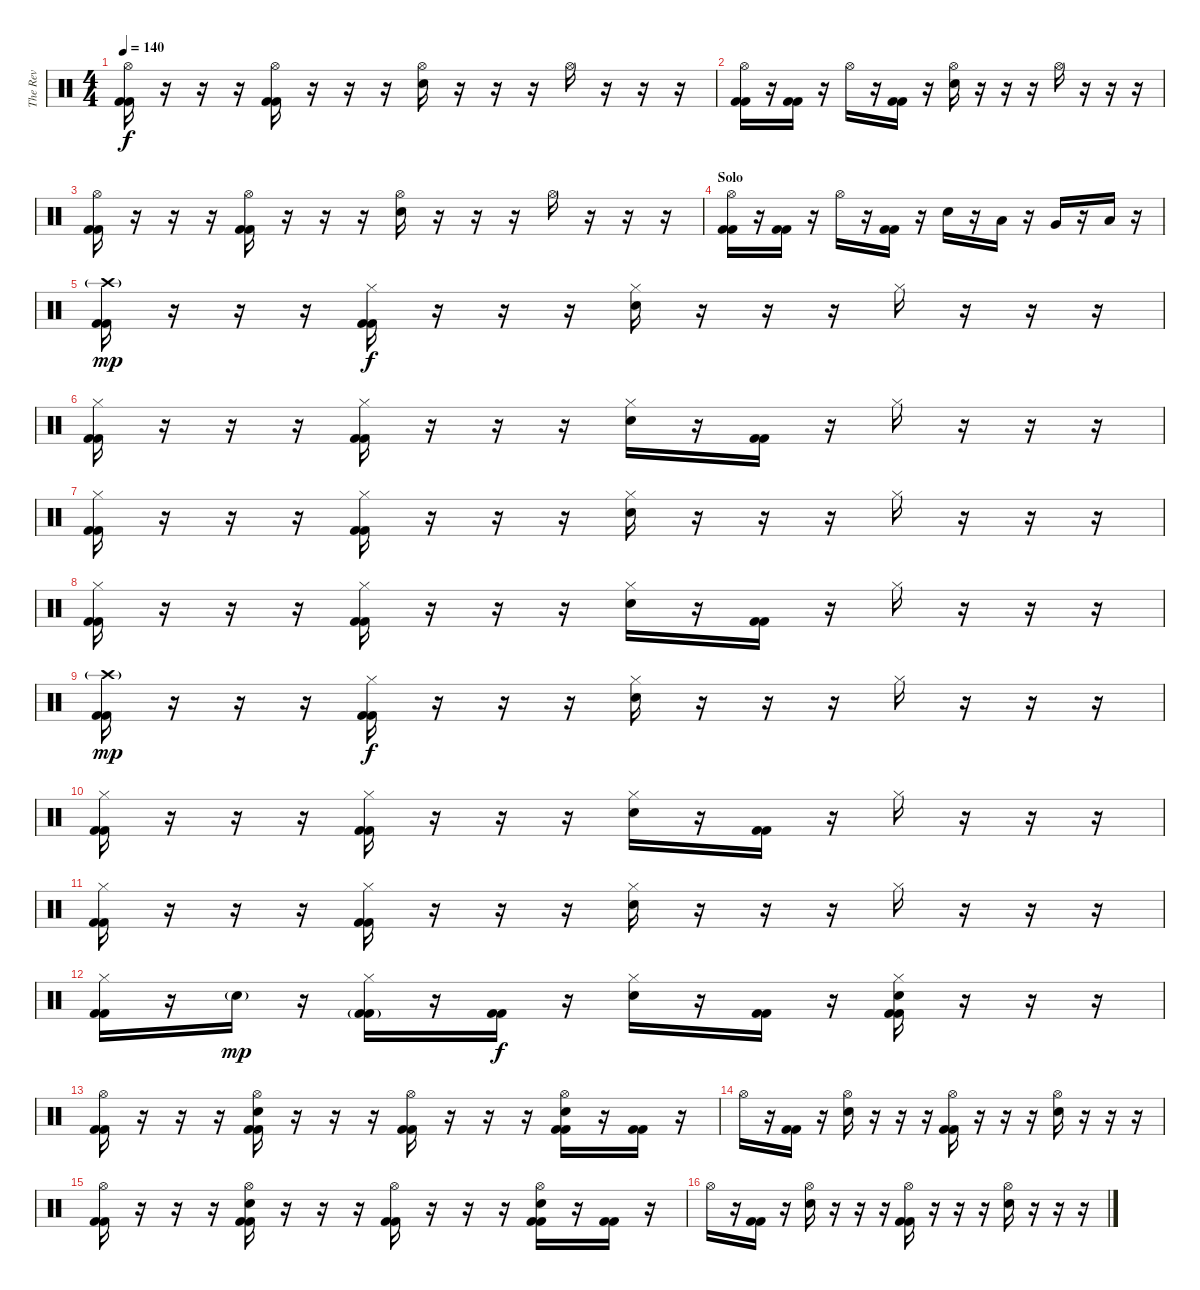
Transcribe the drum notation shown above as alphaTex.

\track ("The Rev" "The Rev") {instrument percussion}
\staff {score}
\articulation defaults
\ts (4 4)
\tempo 140
\clef neutral
\ks c
("Hi-Hat (open)" "Kick (hit) 2" "Kick (hit) 2").16{dy f} r.16 r.16 r.16 ("Hi-Hat (open)" "Kick (hit) 2" "Kick (hit) 2").16 r.16 r.16 r.16 ("Hi-Hat (open)" "Electric Snare (hit)").16 r.16 r.16 r.16 "Hi-Hat (open)".16 r.16 r.16 r.16 |
("Hi-Hat (open)" "Kick (hit) 2" "Kick (hit) 2").16 r.16 ("Kick (hit) 2" "Kick (hit) 2").16 r.16 "Hi-Hat (open)".16 r.16 ("Kick (hit) 2" "Kick (hit) 2").16 r.16 ("Hi-Hat (open)" "Electric Snare (hit)").16 r.16 r.16 r.16 "Hi-Hat (open)".16 r.16 r.16 r.16 |
("Hi-Hat (open)" "Kick (hit) 2" "Kick (hit) 2").16 r.16 r.16 r.16 ("Hi-Hat (open)" "Kick (hit) 2" "Kick (hit) 2").16 r.16 r.16 r.16 ("Hi-Hat (open)" "Electric Snare (hit)").16 r.16 r.16 r.16 "Hi-Hat (open)".16 r.16 r.16 r.16 |
\section ("" "Solo")
("Hi-Hat (open)" "Kick (hit) 2" "Kick (hit) 2").16 r.16 ("Kick (hit) 2" "Kick (hit) 2").16 r.16 "Hi-Hat (open)".16 r.16 ("Kick (hit) 2" "Kick (hit) 2").16 r.16 "Electric Snare (hit)".16 r.16 "Low Tom (hit)".16 r.16 "Very Low Tom (hit)".16 r.16 "Low Floor Tom (hit)".16 r.16 |
("Crash high (hit)"{g} "Kick (hit) 2" "Kick (hit) 2").16{dy mp} r.16 r.16 r.16 ("Hi-Hat (closed)" "Kick (hit) 2" "Kick (hit) 2").16{dy f} r.16 r.16 r.16 ("Hi-Hat (closed)" "Electric Snare (hit)").16 r.16 r.16 r.16 "Hi-Hat (closed)".16 r.16 r.16 r.16 |
("Hi-Hat (closed)" "Kick (hit) 2" "Kick (hit) 2").16 r.16 r.16 r.16 ("Hi-Hat (closed)" "Kick (hit) 2" "Kick (hit) 2").16 r.16 r.16 r.16 ("Hi-Hat (closed)" "Electric Snare (hit)").16 r.16 ("Kick (hit) 2" "Kick (hit) 2").16 r.16 "Hi-Hat (closed)".16 r.16 r.16 r.16 |
("Hi-Hat (closed)" "Kick (hit) 2" "Kick (hit) 2").16 r.16 r.16 r.16 ("Hi-Hat (closed)" "Kick (hit) 2" "Kick (hit) 2").16 r.16 r.16 r.16 ("Hi-Hat (closed)" "Electric Snare (hit)").16 r.16 r.16 r.16 "Hi-Hat (closed)".16 r.16 r.16 r.16 |
("Hi-Hat (closed)" "Kick (hit) 2" "Kick (hit) 2").16 r.16 r.16 r.16 ("Hi-Hat (closed)" "Kick (hit) 2" "Kick (hit) 2").16 r.16 r.16 r.16 ("Hi-Hat (closed)" "Electric Snare (hit)").16 r.16 ("Kick (hit) 2" "Kick (hit) 2").16 r.16 "Hi-Hat (closed)".16 r.16 r.16 r.16 |
("Crash high (hit)"{g} "Kick (hit) 2" "Kick (hit) 2").16{dy mp} r.16 r.16 r.16 ("Hi-Hat (closed)" "Kick (hit) 2" "Kick (hit) 2").16{dy f} r.16 r.16 r.16 ("Hi-Hat (closed)" "Electric Snare (hit)").16 r.16 r.16 r.16 "Hi-Hat (closed)".16 r.16 r.16 r.16 |
("Hi-Hat (closed)" "Kick (hit) 2" "Kick (hit) 2").16 r.16 r.16 r.16 ("Hi-Hat (closed)" "Kick (hit) 2" "Kick (hit) 2").16 r.16 r.16 r.16 ("Hi-Hat (closed)" "Electric Snare (hit)").16 r.16 ("Kick (hit) 2" "Kick (hit) 2").16 r.16 "Hi-Hat (closed)".16 r.16 r.16 r.16 |
("Hi-Hat (closed)" "Kick (hit) 2" "Kick (hit) 2").16 r.16 r.16 r.16 ("Hi-Hat (closed)" "Kick (hit) 2" "Kick (hit) 2").16 r.16 r.16 r.16 ("Hi-Hat (closed)" "Electric Snare (hit)").16 r.16 r.16 r.16 "Hi-Hat (closed)".16 r.16 r.16 r.16 |
("Hi-Hat (closed)" "Kick (hit) 2" "Kick (hit) 2").16 r.16 "Electric Snare (hit)"{g}.16{dy mp} r.16 ("Hi-Hat (closed)" "Kick (hit) 2"{g} "Kick (hit) 2"{g}).16 r.16 ("Kick (hit) 2" "Kick (hit) 2").16{dy f} r.16 ("Hi-Hat (closed)" "Electric Snare (hit)").16 r.16 ("Kick (hit) 2" "Kick (hit) 2").16 r.16 ("Hi-Hat (closed)" "Electric Snare (hit)" "Kick (hit) 2" "Kick (hit) 2").16 r.16 r.16 r.16 |
("Hi-Hat (open)" "Kick (hit) 2" "Kick (hit) 2").16 r.16 r.16 r.16 ("Hi-Hat (open)" "Electric Snare (hit)" "Kick (hit) 2" "Kick (hit) 2").16 r.16 r.16 r.16 ("Hi-Hat (open)" "Kick (hit) 2" "Kick (hit) 2").16 r.16 r.16 r.16 ("Hi-Hat (open)" "Electric Snare (hit)" "Kick (hit) 2" "Kick (hit) 2").16 r.16 ("Kick (hit) 2" "Kick (hit) 2").16 r.16 |
"Hi-Hat (open)".16 r.16 ("Kick (hit) 2" "Kick (hit) 2").16 r.16 ("Hi-Hat (open)" "Electric Snare (hit)").16 r.16 r.16 r.16 ("Hi-Hat (open)" "Kick (hit) 2" "Kick (hit) 2").16 r.16 r.16 r.16 ("Hi-Hat (open)" "Electric Snare (hit)").16 r.16 r.16 r.16 |
("Hi-Hat (open)" "Kick (hit) 2" "Kick (hit) 2").16 r.16 r.16 r.16 ("Hi-Hat (open)" "Electric Snare (hit)" "Kick (hit) 2" "Kick (hit) 2").16 r.16 r.16 r.16 ("Hi-Hat (open)" "Kick (hit) 2" "Kick (hit) 2").16 r.16 r.16 r.16 ("Hi-Hat (open)" "Electric Snare (hit)" "Kick (hit) 2" "Kick (hit) 2").16 r.16 ("Kick (hit) 2" "Kick (hit) 2").16 r.16 |
"Hi-Hat (open)".16 r.16 ("Kick (hit) 2" "Kick (hit) 2").16 r.16 ("Hi-Hat (open)" "Electric Snare (hit)").16 r.16 r.16 r.16 ("Hi-Hat (open)" "Kick (hit) 2" "Kick (hit) 2").16 r.16 r.16 r.16 ("Hi-Hat (open)" "Electric Snare (hit)").16 r.16 r.16 r.16
